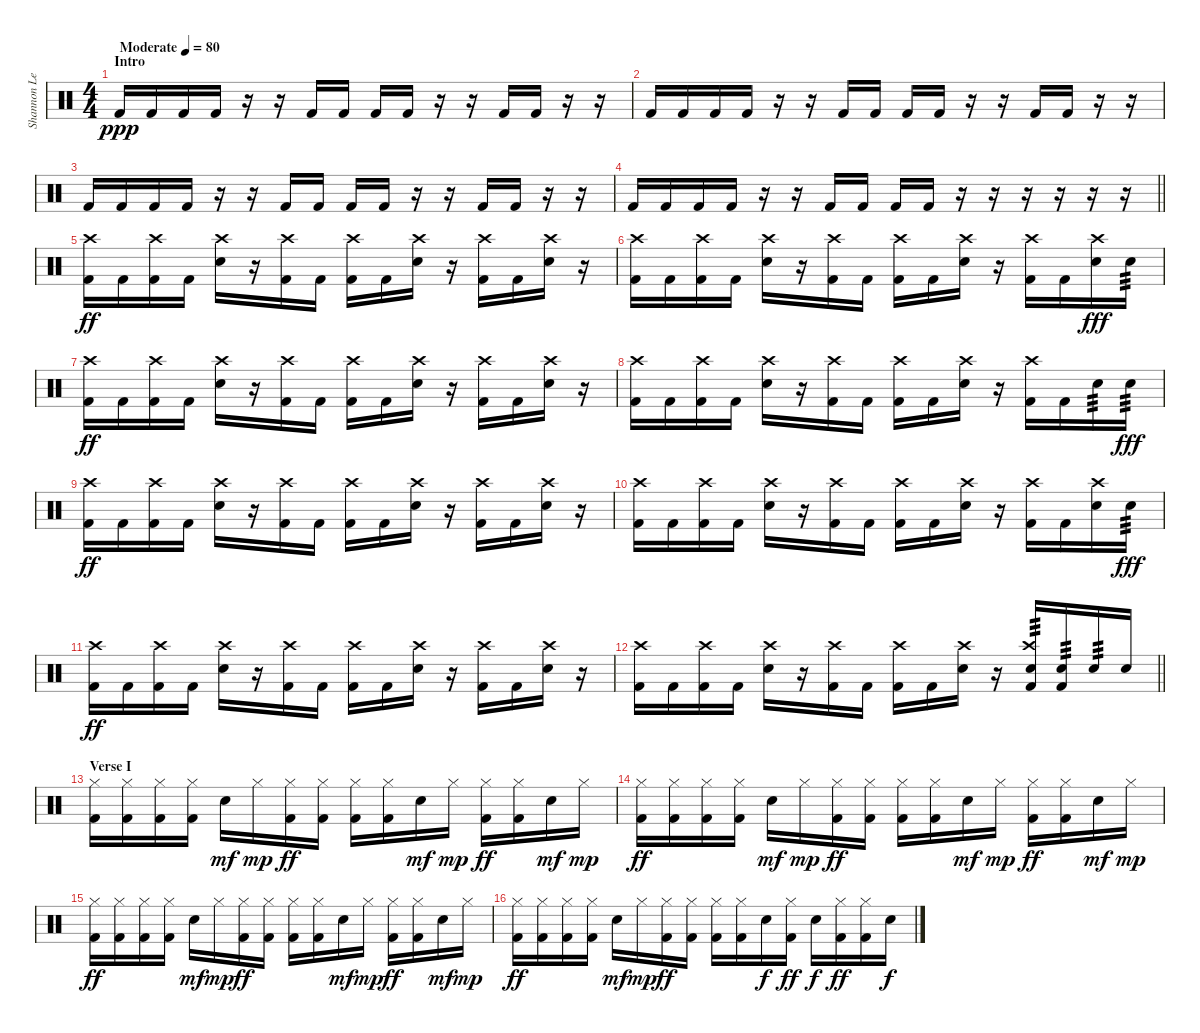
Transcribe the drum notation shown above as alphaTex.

\track ("Shannon Leto (Drums)" "Shannon Le") {instrument percussion}
\staff {score}
\articulation defaults
\ts (4 4)
\section ("" "Intro")
\tempo (80 "Moderate")
\clef neutral
\ks c "Kick (hit) 2".16{dy ppp} "Kick (hit) 2".16 "Kick (hit) 2".16 "Kick (hit) 2".16
r.16 r.16 "Kick (hit) 2".16 "Kick (hit) 2".16 "Kick (hit) 2".16 "Kick (hit) 2".16 r.16 r.16 "Kick (hit) 2".16 "Kick (hit) 2".16 r.16 r.16 |
"Kick (hit) 2".16 "Kick (hit) 2".16 "Kick (hit) 2".16 "Kick (hit) 2".16 r.16 r.16 "Kick (hit) 2".16 "Kick (hit) 2".16 "Kick (hit) 2".16 "Kick (hit) 2".16 r.16 r.16 "Kick (hit) 2".16 "Kick (hit) 2".16 r.16 r.16 |
"Kick (hit) 2".16 "Kick (hit) 2".16 "Kick (hit) 2".16 "Kick (hit) 2".16 r.16 r.16 "Kick (hit) 2".16 "Kick (hit) 2".16 "Kick (hit) 2".16 "Kick (hit) 2".16 r.16 r.16 "Kick (hit) 2".16 "Kick (hit) 2".16 r.16 r.16 |
\barLineRight lightlight "Kick (hit) 2".16 "Kick (hit) 2".16 "Kick (hit) 2".16 "Kick (hit) 2".16
r.16 r.16 "Kick (hit) 2".16 "Kick (hit) 2".16 "Kick (hit) 2".16 "Kick (hit) 2".16 r.16 r.16 r.16 r.16 r.16 r.16 |
\section ("" "")
("Crash high (hit)" "Kick (hit) 2").16{dy ff} "Kick (hit) 2".16 ("Crash high (hit)" "Kick (hit) 2").16 "Kick (hit) 2".16 ("Crash high (hit)" "Snare (hit) 2").16 r.16 ("Crash high (hit)" "Kick (hit) 2").16 "Kick (hit) 2".16 ("Crash high (hit)" "Kick (hit) 2").16 "Kick (hit) 2".16 ("Crash high (hit)" "Snare (hit) 2").16 r.16 ("Crash high (hit)" "Kick (hit) 2").16 "Kick (hit) 2".16 ("Crash high (hit)" "Snare (hit) 2").16 r.16 |
("Crash high (hit)" "Kick (hit) 2").16 "Kick (hit) 2".16 ("Crash high (hit)" "Kick (hit) 2").16 "Kick (hit) 2".16 ("Crash high (hit)" "Snare (hit) 2").16 r.16 ("Crash high (hit)" "Kick (hit) 2").16 "Kick (hit) 2".16 ("Crash high (hit)" "Kick (hit) 2").16 "Kick (hit) 2".16 ("Crash high (hit)" "Snare (hit) 2").16 r.16 ("Crash high (hit)" "Kick (hit) 2").16 "Kick (hit) 2".16 ("Crash high (hit)" "Snare (hit) 2").16{dy fff} "Snare (hit) 2".16{tp 3} |
("Crash high (hit)" "Kick (hit) 2").16{dy ff} "Kick (hit) 2".16 ("Crash high (hit)" "Kick (hit) 2").16 "Kick (hit) 2".16 ("Crash high (hit)" "Snare (hit) 2").16 r.16 ("Crash high (hit)" "Kick (hit) 2").16 "Kick (hit) 2".16 ("Crash high (hit)" "Kick (hit) 2").16 "Kick (hit) 2".16 ("Crash high (hit)" "Snare (hit) 2").16 r.16 ("Crash high (hit)" "Kick (hit) 2").16 "Kick (hit) 2".16 ("Crash high (hit)" "Snare (hit) 2").16 r.16 |
("Crash high (hit)" "Kick (hit) 2").16 "Kick (hit) 2".16 ("Crash high (hit)" "Kick (hit) 2").16 "Kick (hit) 2".16 ("Crash high (hit)" "Snare (hit) 2").16 r.16 ("Crash high (hit)" "Kick (hit) 2").16 "Kick (hit) 2".16 ("Crash high (hit)" "Kick (hit) 2").16 "Kick (hit) 2".16 ("Crash high (hit)" "Snare (hit) 2").16 r.16 ("Crash high (hit)" "Kick (hit) 2").16 "Kick (hit) 2".16 "Snare (hit) 2".16{tp 3} "Snare (hit) 2".16{tp 3 dy fff} |
("Crash high (hit)" "Kick (hit) 2").16{dy ff} "Kick (hit) 2".16 ("Crash high (hit)" "Kick (hit) 2").16 "Kick (hit) 2".16 ("Crash high (hit)" "Snare (hit) 2").16 r.16 ("Crash high (hit)" "Kick (hit) 2").16 "Kick (hit) 2".16 ("Crash high (hit)" "Kick (hit) 2").16 "Kick (hit) 2".16 ("Crash high (hit)" "Snare (hit) 2").16 r.16 ("Crash high (hit)" "Kick (hit) 2").16 "Kick (hit) 2".16 ("Crash high (hit)" "Snare (hit) 2").16 r.16 |
("Crash high (hit)" "Kick (hit) 2").16 "Kick (hit) 2".16 ("Crash high (hit)" "Kick (hit) 2").16 "Kick (hit) 2".16 ("Crash high (hit)" "Snare (hit) 2").16 r.16 ("Crash high (hit)" "Kick (hit) 2").16 "Kick (hit) 2".16 ("Crash high (hit)" "Kick (hit) 2").16 "Kick (hit) 2".16 ("Crash high (hit)" "Snare (hit) 2").16 r.16 ("Crash high (hit)" "Kick (hit) 2").16 "Kick (hit) 2".16 ("Crash high (hit)" "Snare (hit) 2").16 "Snare (hit) 2".16{tp 3 dy fff} |
("Crash high (hit)" "Kick (hit) 2").16{dy ff} "Kick (hit) 2".16 ("Crash high (hit)" "Kick (hit) 2").16 "Kick (hit) 2".16 ("Crash high (hit)" "Snare (hit) 2").16 r.16 ("Crash high (hit)" "Kick (hit) 2").16 "Kick (hit) 2".16 ("Crash high (hit)" "Kick (hit) 2").16 "Kick (hit) 2".16 ("Crash high (hit)" "Snare (hit) 2").16 r.16 ("Crash high (hit)" "Kick (hit) 2").16 "Kick (hit) 2".16 ("Crash high (hit)" "Snare (hit) 2").16 r.16 |
\barLineRight lightlight
("Crash high (hit)" "Kick (hit) 2").16 "Kick (hit) 2".16 ("Crash high (hit)" "Kick (hit) 2").16 "Kick (hit) 2".16 ("Crash high (hit)" "Snare (hit) 2").16 r.16 ("Crash high (hit)" "Kick (hit) 2").16 "Kick (hit) 2".16 ("Crash high (hit)" "Kick (hit) 2").16 "Kick (hit) 2".16 ("Crash high (hit)" "Snare (hit) 2").16 r.16 ("Crash high (hit)" "Snare (hit) 2" "Kick (hit) 2").16{tp 3} ("Snare (hit) 2" "Kick (hit) 2").16{tp 3} "Snare (hit) 2".16{tp 3} "Snare (hit) 2".16 |
\section ("" "Verse I")
("Hi-Hat (closed)" "Kick (hit) 2").16 ("Hi-Hat (closed)" "Kick (hit) 2").16 ("Hi-Hat (closed)" "Kick (hit) 2").16 ("Hi-Hat (closed)" "Kick (hit) 2").16 "Snare (hit) 2".16{dy mf} "Hi-Hat (closed)".16{dy mp} ("Hi-Hat (closed)" "Kick (hit) 2").16{dy ff} ("Hi-Hat (closed)" "Kick (hit) 2").16 ("Hi-Hat (closed)" "Kick (hit) 2").16 ("Hi-Hat (closed)" "Kick (hit) 2").16 "Snare (hit) 2".16{dy mf} "Hi-Hat (closed)".16{dy mp} ("Hi-Hat (closed)" "Kick (hit) 2").16{dy ff} ("Hi-Hat (closed)" "Kick (hit) 2").16 "Snare (hit) 2".16{dy mf} "Hi-Hat (closed)".16{dy mp} |
("Hi-Hat (closed)" "Kick (hit) 2").16{dy ff} ("Hi-Hat (closed)" "Kick (hit) 2").16 ("Hi-Hat (closed)" "Kick (hit) 2").16 ("Hi-Hat (closed)" "Kick (hit) 2").16 "Snare (hit) 2".16{dy mf} "Hi-Hat (closed)".16{dy mp} ("Hi-Hat (closed)" "Kick (hit) 2").16{dy ff} ("Hi-Hat (closed)" "Kick (hit) 2").16 ("Hi-Hat (closed)" "Kick (hit) 2").16 ("Hi-Hat (closed)" "Kick (hit) 2").16 "Snare (hit) 2".16{dy mf} "Hi-Hat (closed)".16{dy mp} ("Hi-Hat (closed)" "Kick (hit) 2").16{dy ff} ("Hi-Hat (closed)" "Kick (hit) 2").16 "Snare (hit) 2".16{dy mf} "Hi-Hat (closed)".16{dy mp} |
("Hi-Hat (closed)" "Kick (hit) 2").16{dy ff} ("Hi-Hat (closed)" "Kick (hit) 2").16 ("Hi-Hat (closed)" "Kick (hit) 2").16 ("Hi-Hat (closed)" "Kick (hit) 2").16 "Snare (hit) 2".16{dy mf} "Hi-Hat (closed)".16{dy mp} ("Hi-Hat (closed)" "Kick (hit) 2").16{dy ff} ("Hi-Hat (closed)" "Kick (hit) 2").16 ("Hi-Hat (closed)" "Kick (hit) 2").16 ("Hi-Hat (closed)" "Kick (hit) 2").16 "Snare (hit) 2".16{dy mf} "Hi-Hat (closed)".16{dy mp} ("Hi-Hat (closed)" "Kick (hit) 2").16{dy ff} ("Hi-Hat (closed)" "Kick (hit) 2").16 "Snare (hit) 2".16{dy mf} "Hi-Hat (closed)".16{dy mp} |
("Hi-Hat (closed)" "Kick (hit) 2").16{dy ff} ("Hi-Hat (closed)" "Kick (hit) 2").16 ("Hi-Hat (closed)" "Kick (hit) 2").16 ("Hi-Hat (closed)" "Kick (hit) 2").16 "Snare (hit) 2".16{dy mf} "Hi-Hat (closed)".16{dy mp} ("Hi-Hat (closed)" "Kick (hit) 2").16{dy ff} ("Hi-Hat (closed)" "Kick (hit) 2").16 ("Hi-Hat (closed)" "Kick (hit) 2").16 ("Hi-Hat (closed)" "Kick (hit) 2").16 "Snare (hit) 2".16{dy f} ("Hi-Hat (closed)" "Kick (hit) 2").16{dy ff} "Snare (hit) 2".16{dy f} ("Hi-Hat (closed)" "Kick (hit) 2").16{dy ff} ("Hi-Hat (closed)" "Kick (hit) 2").16 "Snare (hit) 2".16{dy f}
